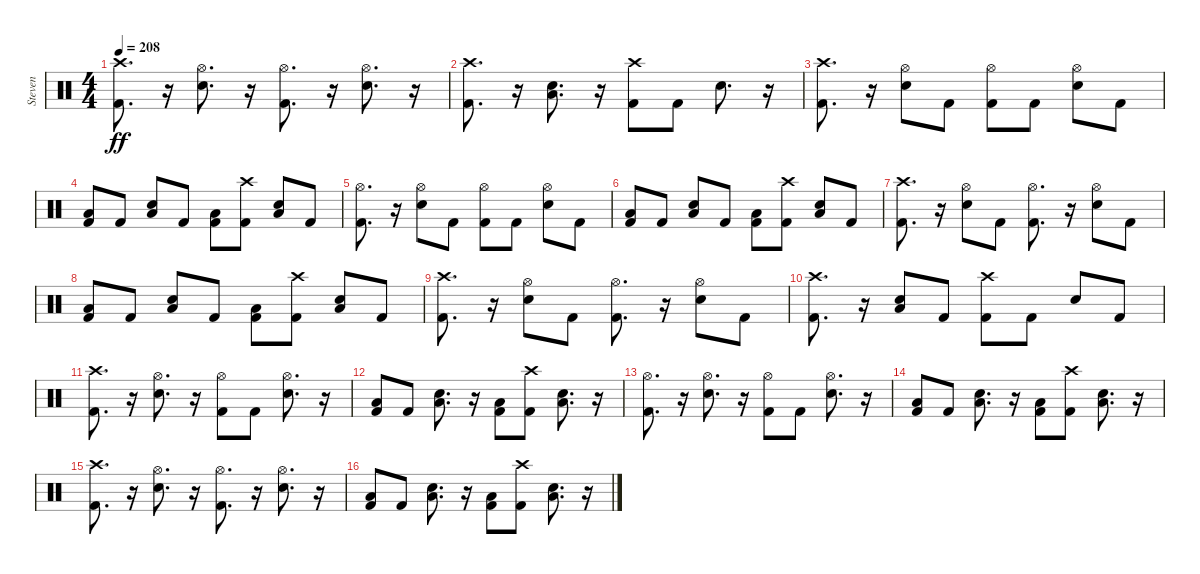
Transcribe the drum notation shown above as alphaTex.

\track ("Steven" "Steven") {instrument percussion}
\staff {score}
\articulation defaults
\ts (4 4)
\tempo 208
\clef neutral
\ks c
("Kick (hit) 2" "Crash high (hit)").8{d dy ff} r.16 ("Snare (hit) 2" "Hi-Hat (open)").8{d} r.16 ("Hi-Hat (open)" "Kick (hit) 2").8{d} r.16 ("Hi-Hat (open)" "Snare (hit) 2").8{d} r.16 |
("Kick (hit) 2" "Crash high (hit)").8{d} r.16 ("Snare (hit) 2" "Low Tom (hit)").8{d} r.16 ("Kick (hit) 2" "Crash high (hit)").8 "Kick (hit) 2".8 "Snare (hit) 2".8{d} r.16 |
("Kick (hit) 2" "Crash high (hit)").8{d} r.16 ("Snare (hit) 2" "Hi-Hat (open)").8 "Kick (hit) 2".8 ("Kick (hit) 2" "Hi-Hat (open)").8 "Kick (hit) 2".8 ("Snare (hit) 2" "Hi-Hat (open)").8 "Kick (hit) 2".8 |
("Kick (hit) 2" "Low Tom (hit)").8 "Kick (hit) 2".8 ("Snare (hit) 2" "Low Tom (hit)").8 "Kick (hit) 2".8 ("Kick (hit) 2" "Low Tom (hit)").8 ("Kick (hit) 2" "Crash high (hit)").8 ("Snare (hit) 2" "Low Tom (hit)").8 "Kick (hit) 2".8 |
("Kick (hit) 2" "Hi-Hat (open)").8{d} r.16 ("Snare (hit) 2" "Hi-Hat (open)").8 "Kick (hit) 2".8 ("Kick (hit) 2" "Hi-Hat (open)").8 "Kick (hit) 2".8 ("Snare (hit) 2" "Hi-Hat (open)").8 "Kick (hit) 2".8 |
("Kick (hit) 2" "Low Tom (hit)").8 "Kick (hit) 2".8 ("Snare (hit) 2" "Low Tom (hit)").8 "Kick (hit) 2".8 ("Kick (hit) 2" "Low Tom (hit)").8 ("Kick (hit) 2" "Crash high (hit)").8 ("Snare (hit) 2" "Low Tom (hit)").8 "Kick (hit) 2".8 |
("Kick (hit) 2" "Crash high (hit)").8{d} r.16 ("Snare (hit) 2" "Hi-Hat (open)").8 "Kick (hit) 2".8 ("Kick (hit) 2" "Hi-Hat (open)").8{d} r.16 ("Snare (hit) 2" "Hi-Hat (open)").8 "Kick (hit) 2".8 |
("Kick (hit) 2" "Low Tom (hit)").8 "Kick (hit) 2".8 ("Snare (hit) 2" "Low Tom (hit)").8 "Kick (hit) 2".8 ("Kick (hit) 2" "Low Tom (hit)").8 ("Kick (hit) 2" "Crash high (hit)").8 ("Snare (hit) 2" "Low Tom (hit)").8 "Kick (hit) 2".8 |
("Kick (hit) 2" "Crash high (hit)").8{d} r.16 ("Snare (hit) 2" "Hi-Hat (open)").8 "Kick (hit) 2".8 ("Kick (hit) 2" "Hi-Hat (open)").8{d} r.16 ("Snare (hit) 2" "Hi-Hat (open)").8 "Kick (hit) 2".8 |
("Kick (hit) 2" "Crash high (hit)").8{d} r.16 ("Snare (hit) 2" "Low Tom (hit)").8 "Kick (hit) 2".8 ("Kick (hit) 2" "Crash high (hit)").8 "Kick (hit) 2".8 "Snare (hit) 2".8 "Kick (hit) 2".8 |
("Kick (hit) 2" "Crash high (hit)").8{d} r.16 ("Snare (hit) 2" "Hi-Hat (open)").8{d} r.16 ("Kick (hit) 2" "Hi-Hat (open)").8 "Kick (hit) 2".8 ("Snare (hit) 2" "Hi-Hat (open)").8{d} r.16 |
("Kick (hit) 2" "Low Tom (hit)").8 "Kick (hit) 2".8 ("Snare (hit) 2" "Low Tom (hit)").8{d} r.16 ("Kick (hit) 2" "Low Tom (hit)").8 ("Kick (hit) 2" "Crash high (hit)").8 ("Snare (hit) 2" "Low Tom (hit)").8{d} r.16 |
("Kick (hit) 2" "Hi-Hat (open)").8{d} r.16 ("Snare (hit) 2" "Hi-Hat (open)").8{d} r.16 ("Kick (hit) 2" "Hi-Hat (open)").8 "Kick (hit) 2".8 ("Snare (hit) 2" "Hi-Hat (open)").8{d} r.16 |
("Kick (hit) 2" "Low Tom (hit)").8 "Kick (hit) 2".8 ("Snare (hit) 2" "Low Tom (hit)").8{d} r.16 ("Kick (hit) 2" "Low Tom (hit)").8 ("Kick (hit) 2" "Crash high (hit)").8 ("Snare (hit) 2" "Low Tom (hit)").8{d} r.16 |
("Kick (hit) 2" "Crash high (hit)").8{d} r.16 ("Snare (hit) 2" "Hi-Hat (open)").8{d} r.16 ("Kick (hit) 2" "Hi-Hat (open)").8{d} r.16 ("Snare (hit) 2" "Hi-Hat (open)").8{d} r.16 |
("Kick (hit) 2" "Low Tom (hit)").8 "Kick (hit) 2".8 ("Snare (hit) 2" "Low Tom (hit)").8{d} r.16 ("Kick (hit) 2" "Low Tom (hit)").8 ("Kick (hit) 2" "Crash high (hit)").8 ("Snare (hit) 2" "Low Tom (hit)").8{d} r.16
